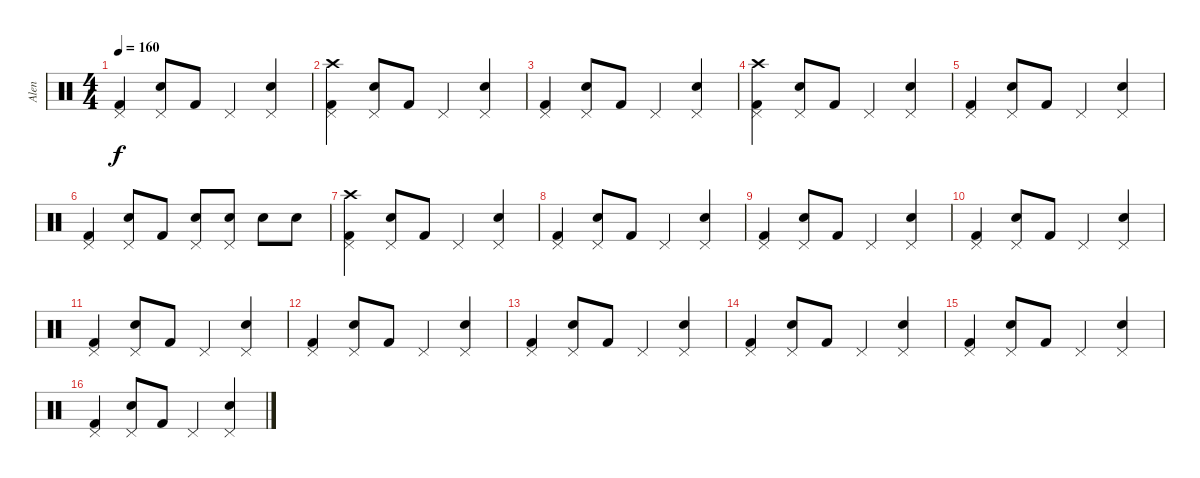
\track ("Alen" "Alen") {instrument percussion}
\staff {score}
\articulation defaults
\ts (4 4)
\tempo 160
\clef neutral
\ks c
("Pedal Hi-Hat (hit)" "Kick (hit) 2").4{dy f} ("Pedal Hi-Hat (hit)" "Snare (hit) 2").8 "Kick (hit) 2".8 "Pedal Hi-Hat (hit)".4 ("Pedal Hi-Hat (hit)" "Snare (hit) 2").4 |
("Crash high (hit)" "Pedal Hi-Hat (hit)" "Kick (hit) 2").4 ("Pedal Hi-Hat (hit)" "Snare (hit) 2").8 "Kick (hit) 2".8 "Pedal Hi-Hat (hit)".4 ("Pedal Hi-Hat (hit)" "Snare (hit) 2").4 |
("Pedal Hi-Hat (hit)" "Kick (hit) 2").4 ("Pedal Hi-Hat (hit)" "Snare (hit) 2").8 "Kick (hit) 2".8 "Pedal Hi-Hat (hit)".4 ("Pedal Hi-Hat (hit)" "Snare (hit) 2").4 |
("Crash high (hit)" "Pedal Hi-Hat (hit)" "Kick (hit) 2").4 ("Pedal Hi-Hat (hit)" "Snare (hit) 2").8 "Kick (hit) 2".8 "Pedal Hi-Hat (hit)".4 ("Pedal Hi-Hat (hit)" "Snare (hit) 2").4 |
("Pedal Hi-Hat (hit)" "Kick (hit) 2").4 ("Pedal Hi-Hat (hit)" "Snare (hit) 2").8 "Kick (hit) 2".8 "Pedal Hi-Hat (hit)".4 ("Pedal Hi-Hat (hit)" "Snare (hit) 2").4 |
("Pedal Hi-Hat (hit)" "Kick (hit) 2").4 ("Pedal Hi-Hat (hit)" "Snare (hit) 2").8 "Kick (hit) 2".8 ("Pedal Hi-Hat (hit)" "Snare (hit) 2").8 ("Pedal Hi-Hat (hit)" "Snare (hit) 2").8 "Snare (hit) 2".8 "Snare (hit) 2".8 |
("Crash high (hit)" "Pedal Hi-Hat (hit)" "Kick (hit) 2").4 ("Pedal Hi-Hat (hit)" "Snare (hit) 2").8 "Kick (hit) 2".8 "Pedal Hi-Hat (hit)".4 ("Pedal Hi-Hat (hit)" "Snare (hit) 2").4 |
("Pedal Hi-Hat (hit)" "Kick (hit) 2").4 ("Pedal Hi-Hat (hit)" "Snare (hit) 2").8 "Kick (hit) 2".8 "Pedal Hi-Hat (hit)".4 ("Pedal Hi-Hat (hit)" "Snare (hit) 2").4 |
("Pedal Hi-Hat (hit)" "Kick (hit) 2").4 ("Pedal Hi-Hat (hit)" "Snare (hit) 2").8 "Kick (hit) 2".8 "Pedal Hi-Hat (hit)".4 ("Pedal Hi-Hat (hit)" "Snare (hit) 2").4 |
("Pedal Hi-Hat (hit)" "Kick (hit) 2").4 ("Pedal Hi-Hat (hit)" "Snare (hit) 2").8 "Kick (hit) 2".8 "Pedal Hi-Hat (hit)".4 ("Pedal Hi-Hat (hit)" "Snare (hit) 2").4 |
("Pedal Hi-Hat (hit)" "Kick (hit) 2").4 ("Pedal Hi-Hat (hit)" "Snare (hit) 2").8 "Kick (hit) 2".8 "Pedal Hi-Hat (hit)".4 ("Pedal Hi-Hat (hit)" "Snare (hit) 2").4 |
("Pedal Hi-Hat (hit)" "Kick (hit) 2").4 ("Pedal Hi-Hat (hit)" "Snare (hit) 2").8 "Kick (hit) 2".8 "Pedal Hi-Hat (hit)".4 ("Pedal Hi-Hat (hit)" "Snare (hit) 2").4 |
("Pedal Hi-Hat (hit)" "Kick (hit) 2").4 ("Pedal Hi-Hat (hit)" "Snare (hit) 2").8 "Kick (hit) 2".8 "Pedal Hi-Hat (hit)".4 ("Pedal Hi-Hat (hit)" "Snare (hit) 2").4 |
("Pedal Hi-Hat (hit)" "Kick (hit) 2").4 ("Pedal Hi-Hat (hit)" "Snare (hit) 2").8 "Kick (hit) 2".8 "Pedal Hi-Hat (hit)".4 ("Pedal Hi-Hat (hit)" "Snare (hit) 2").4 |
("Pedal Hi-Hat (hit)" "Kick (hit) 2").4 ("Pedal Hi-Hat (hit)" "Snare (hit) 2").8 "Kick (hit) 2".8 "Pedal Hi-Hat (hit)".4 ("Pedal Hi-Hat (hit)" "Snare (hit) 2").4 |
("Pedal Hi-Hat (hit)" "Kick (hit) 2").4 ("Pedal Hi-Hat (hit)" "Snare (hit) 2").8 "Kick (hit) 2".8 "Pedal Hi-Hat (hit)".4 ("Pedal Hi-Hat (hit)" "Snare (hit) 2").4
